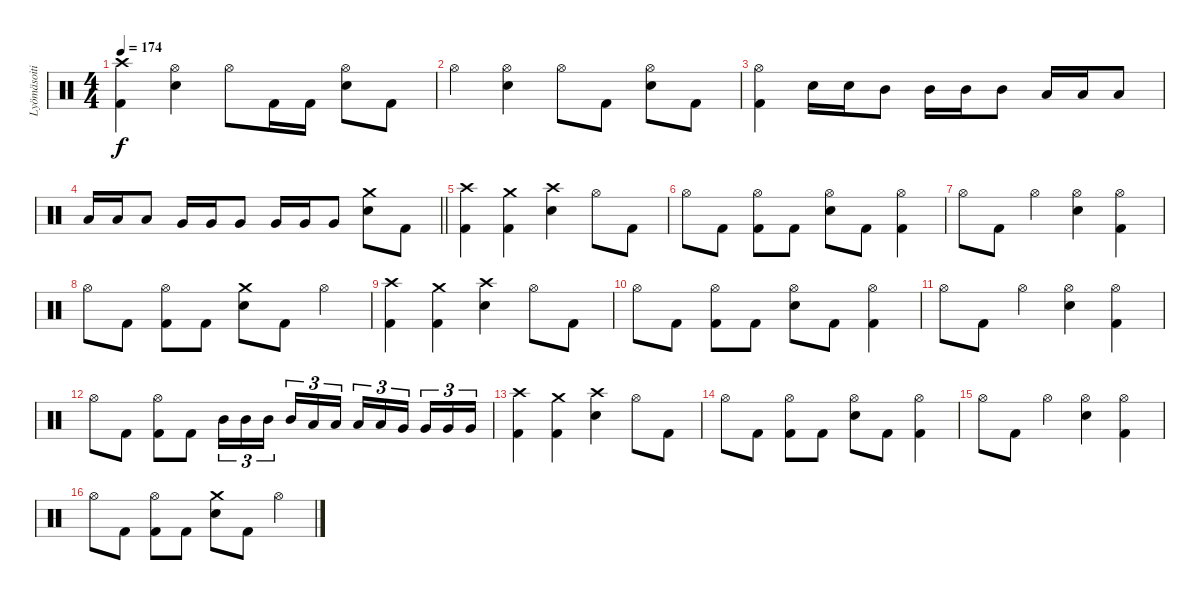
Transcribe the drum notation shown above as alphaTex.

\track ("Lyömäsoitin" "Lyömäsoiti") {instrument percussion}
\staff {score}
\articulation defaults
\ts (4 4)
\tempo 174
\clef neutral
\ks c
("Crash high (hit)" "Kick (hit) 2").4{dy f} ("Hi-Hat (open)" "Electric Snare (hit)").4 "Hi-Hat (open)".8 "Kick (hit) 2".16 "Kick (hit) 2".16 ("Hi-Hat (open)" "Electric Snare (hit)").8 "Kick (hit) 2".8 |
"Hi-Hat (open)".4 ("Hi-Hat (open)" "Electric Snare (hit)").4 "Hi-Hat (open)".8 "Kick (hit) 2".8 ("Hi-Hat (open)" "Electric Snare (hit)").8 "Kick (hit) 2".8 |
("Hi-Hat (open)" "Kick (hit) 2").4 "Electric Snare (hit)".16 "Electric Snare (hit)".16 "Mid Tom (hit)".8 "Mid Tom (hit)".16 "Mid Tom (hit)".16 "Mid Tom (hit)".8 "Low Tom (hit)".16 "Low Tom (hit)".16 "Low Tom (hit)".8 |
\barLineRight lightlight "Low Tom (hit)".16 "Low Tom (hit)".16 "Low Tom (hit)".8 "Very Low Tom (hit)".16 "Very Low Tom (hit)".16 "Very Low Tom (hit)".8 "Very Low Tom (hit)".16 "Very Low Tom (hit)".16 "Very Low Tom (hit)".8
("Crash medium (hit)" "Electric Snare (hit)").8 "Kick (hit) 2".8 |
\section ("" "")
("Crash high (hit)" "Kick (hit) 2").4 ("Crash medium (hit)" "Kick (hit) 2").4 ("Crash high (hit)" "Electric Snare (hit)").4 "Hi-Hat (open)".8 "Kick (hit) 2".8 |
"Hi-Hat (open)".8 "Kick (hit) 2".8 ("Hi-Hat (open)" "Kick (hit) 2").8 "Kick (hit) 2".8 ("Hi-Hat (open)" "Electric Snare (hit)").8 "Kick (hit) 2".8 ("Hi-Hat (open)" "Kick (hit) 2").4 |
"Hi-Hat (open)".8 "Kick (hit) 2".8 "Hi-Hat (open)".4 ("Hi-Hat (open)" "Electric Snare (hit)").4 ("Hi-Hat (open)" "Kick (hit) 2").4 |
"Hi-Hat (open)".8 "Kick (hit) 2".8 ("Hi-Hat (open)" "Kick (hit) 2").8 "Kick (hit) 2".8 ("Crash medium (hit)" "Electric Snare (hit)").8 "Kick (hit) 2".8 "Hi-Hat (open)".4 |
("Crash high (hit)" "Kick (hit) 2").4 ("Crash medium (hit)" "Kick (hit) 2").4 ("Crash high (hit)" "Electric Snare (hit)").4 "Hi-Hat (open)".8 "Kick (hit) 2".8 |
"Hi-Hat (open)".8 "Kick (hit) 2".8 ("Hi-Hat (open)" "Kick (hit) 2").8 "Kick (hit) 2".8 ("Hi-Hat (open)" "Electric Snare (hit)").8 "Kick (hit) 2".8 ("Hi-Hat (open)" "Kick (hit) 2").4 |
"Hi-Hat (open)".8 "Kick (hit) 2".8 "Hi-Hat (open)".4 ("Hi-Hat (open)" "Electric Snare (hit)").4 ("Hi-Hat (open)" "Kick (hit) 2").4 |
"Hi-Hat (open)".8 "Kick (hit) 2".8 ("Hi-Hat (open)" "Kick (hit) 2").8 "Kick (hit) 2".8 "Mid Tom (hit)".16{tu (3 2)} "Mid Tom (hit)".16{tu (3 2)} "Mid Tom (hit)".16{tu (3 2) beam splitsecondary} "Mid Tom (hit)".16{tu (3 2)} "Low Tom (hit)".16{tu (3 2)} "Low Tom (hit)".16{tu (3 2)} "Low Tom (hit)".16{tu (3 2)} "Low Tom (hit)".16{tu (3 2)} "Very Low Tom (hit)".16{tu (3 2) beam splitsecondary} "Very Low Tom (hit)".16{tu (3 2)} "Very Low Tom (hit)".16{tu (3 2)} "Very Low Tom (hit)".16{tu (3 2)} |
("Crash high (hit)" "Kick (hit) 2").4 ("Crash medium (hit)" "Kick (hit) 2").4 ("Crash high (hit)" "Electric Snare (hit)").4 "Hi-Hat (open)".8 "Kick (hit) 2".8 |
"Hi-Hat (open)".8 "Kick (hit) 2".8 ("Hi-Hat (open)" "Kick (hit) 2").8 "Kick (hit) 2".8 ("Hi-Hat (open)" "Electric Snare (hit)").8 "Kick (hit) 2".8 ("Hi-Hat (open)" "Kick (hit) 2").4 |
"Hi-Hat (open)".8 "Kick (hit) 2".8 "Hi-Hat (open)".4 ("Hi-Hat (open)" "Electric Snare (hit)").4 ("Hi-Hat (open)" "Kick (hit) 2").4 |
"Hi-Hat (open)".8 "Kick (hit) 2".8 ("Hi-Hat (open)" "Kick (hit) 2").8 "Kick (hit) 2".8 ("Crash medium (hit)" "Electric Snare (hit)").8 "Kick (hit) 2".8 "Hi-Hat (open)".4
